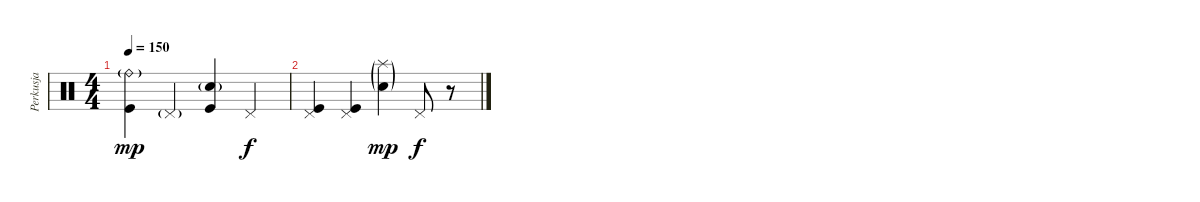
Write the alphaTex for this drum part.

\track ("Perkusja" "Perkusja") {instrument percussion}
\staff {score}
\articulation defaults
\ts (4 4)
\tempo 150
\clef neutral
\ks c
("Ride (bell)"{g} "Kick (hit)").4{dy mp} "Pedal Hi-Hat (hit)"{g}.4 ("Snare (hit) 2"{g} "Kick (hit)").4 "Pedal Hi-Hat (hit)".4{dy f} |
("Pedal Hi-Hat (hit)" "Kick (hit)").4 ("Pedal Hi-Hat (hit)" "Kick (hit)").4 ("Splash (hit)"{g} "Snare (hit) 2"{g}).4{dy mp} "Pedal Hi-Hat (hit)".8{dy f} r.8
